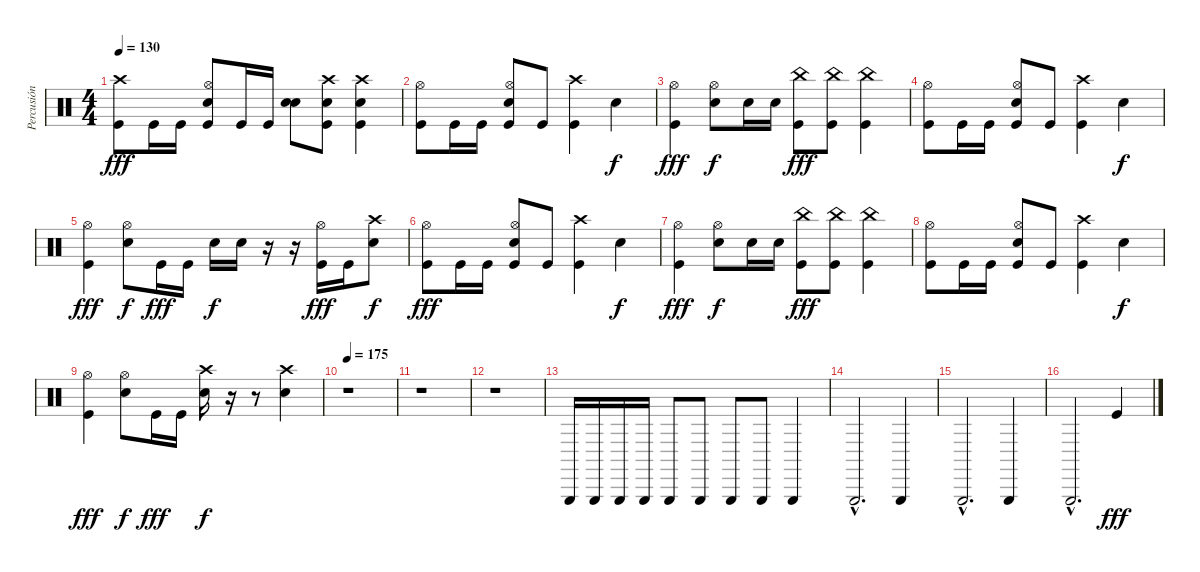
\track ("Percusión" "Percusión") {instrument percussion}
\staff {score}
\articulation defaults
\ts (4 4)
\tempo 130
\clef neutral
\ks c
("Crash high (hit)" "Kick (hit)").8{dy fff} "Kick (hit)".16 "Kick (hit)".16 ("Hi-Hat (open)" "Electric Snare (hit)" "Kick (hit)").8 "Kick (hit)".16 "Kick (hit)".16 ("Electric Snare (hit)" "Electric Snare (hit)").8{bd 480} ("Crash high (hit)" "Electric Snare (hit)" "Kick (hit)").8 ("Crash high (hit)" "Electric Snare (hit)" "Kick (hit)").4 |
("Hi-Hat (open)" "Kick (hit)").8 "Kick (hit)".16 "Kick (hit)".16 ("Hi-Hat (open)" "Electric Snare (hit)" "Kick (hit)").8 "Kick (hit)".8 ("Crash high (hit)" "Kick (hit)").4 "Electric Snare (hit)".4{dy f} |
("Hi-Hat (open)" "Kick (hit)").4{dy fff} ("Hi-Hat (open)" "Electric Snare (hit)").8{dy f} "Electric Snare (hit)".16 "Electric Snare (hit)".16 ("China (hit)" "Kick (hit)").8{dy fff} ("China (hit)" "Kick (hit)").8 ("China (hit)" "Kick (hit)").4 |
("Hi-Hat (open)" "Kick (hit)").8 "Kick (hit)".16 "Kick (hit)".16 ("Hi-Hat (open)" "Electric Snare (hit)" "Kick (hit)").8 "Kick (hit)".8 ("Crash high (hit)" "Kick (hit)").4 "Electric Snare (hit)".4{dy f} |
("Hi-Hat (open)" "Kick (hit)").4{dy fff} ("Hi-Hat (open)" "Electric Snare (hit)").8{dy f} "Kick (hit)".16{dy fff} "Kick (hit)".16 "Electric Snare (hit)".16{dy f} "Electric Snare (hit)".16 r.16 r.16 ("Hi-Hat (open)" "Kick (hit)").16{dy fff} "Kick (hit)".16 ("Crash high (hit)" "Electric Snare (hit)").8{dy f} |
("Hi-Hat (open)" "Kick (hit)").8{dy fff} "Kick (hit)".16 "Kick (hit)".16 ("Hi-Hat (open)" "Electric Snare (hit)" "Kick (hit)").8 "Kick (hit)".8 ("Crash high (hit)" "Kick (hit)").4 "Electric Snare (hit)".4{dy f} |
("Hi-Hat (open)" "Kick (hit)").4{dy fff} ("Hi-Hat (open)" "Electric Snare (hit)").8{dy f} "Electric Snare (hit)".16 "Electric Snare (hit)".16 ("China (hit)" "Kick (hit)").8{dy fff} ("China (hit)" "Kick (hit)").8 ("China (hit)" "Kick (hit)").4 |
("Hi-Hat (open)" "Kick (hit)").8 "Kick (hit)".16 "Kick (hit)".16 ("Hi-Hat (open)" "Electric Snare (hit)" "Kick (hit)").8 "Kick (hit)".8 ("Crash high (hit)" "Kick (hit)").4 "Electric Snare (hit)".4{dy f} |
("Hi-Hat (open)" "Kick (hit)").4{dy fff} ("Hi-Hat (open)" "Electric Snare (hit)").8{dy f} "Kick (hit)".16{dy fff} "Kick (hit)".16 ("Crash high (hit)" "Electric Snare (hit)").16{dy f} r.16 r.8 ("Crash high (hit)" "Electric Snare (hit)").4 |
\tempo 175
r.1 |
r.1 |
r.1 |
"Triangle (hit)".16 "Triangle (hit)".16 "Triangle (hit)".16 "Triangle (hit)".16 "Triangle (hit)".8 "Triangle (hit)".8 "Triangle (hit)".8 "Triangle (hit)".8 "Triangle (hit)".4 |
"Triangle (hit)"{hac}.2{d} "Triangle (hit)".4 |
"Triangle (hit)"{hac}.2{d} "Triangle (hit)".4 |
"Triangle (hit)"{hac}.2{d} "Kick (hit)".4{dy fff}
